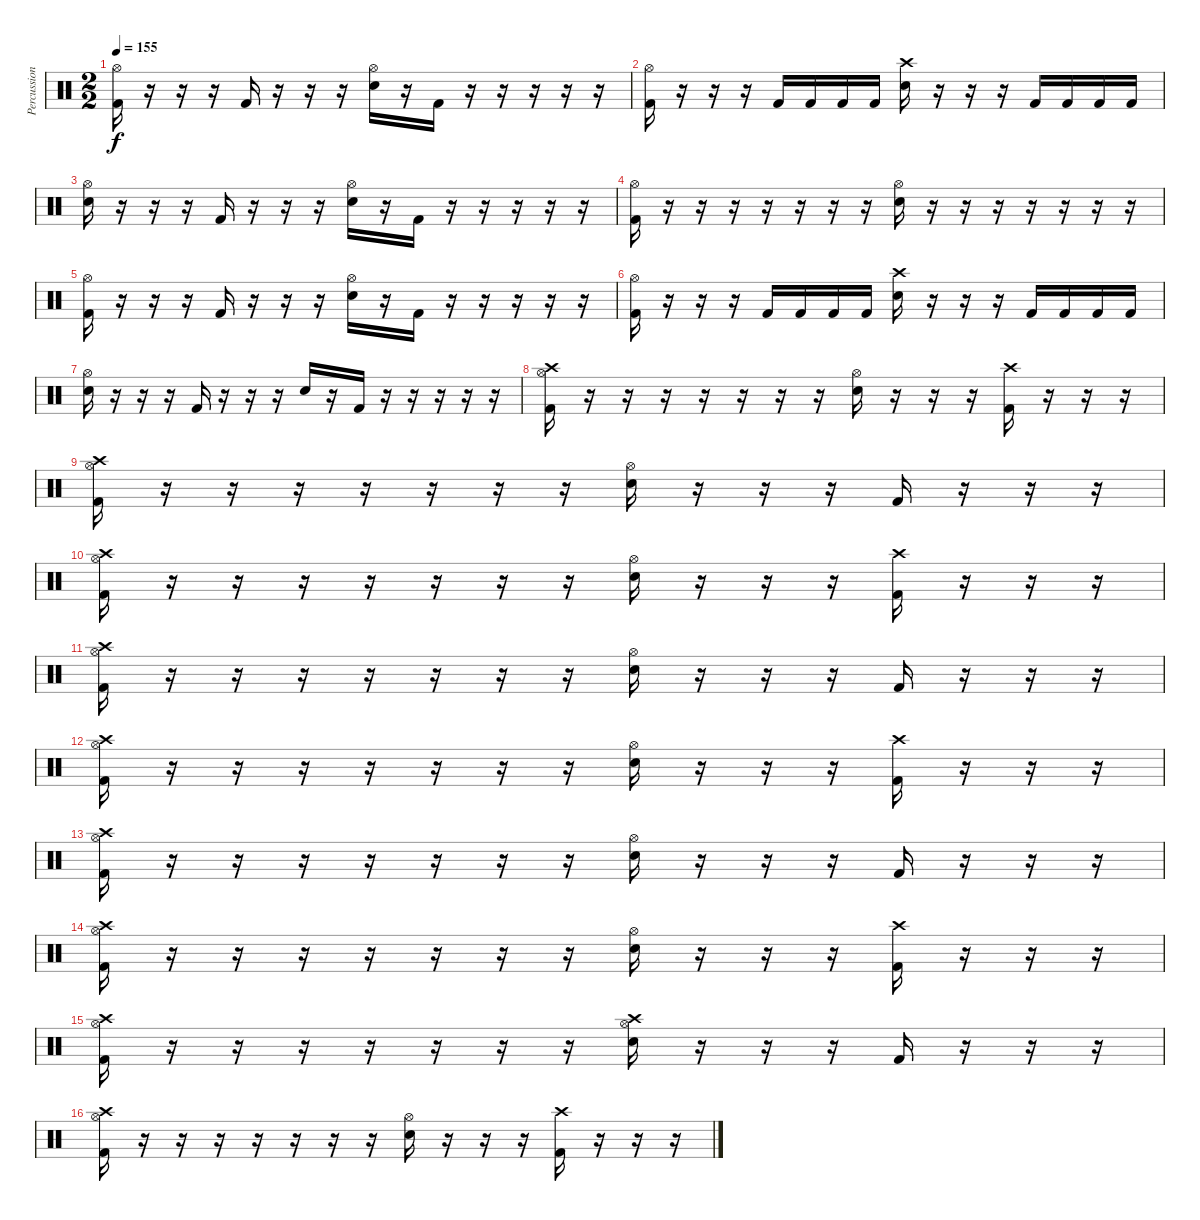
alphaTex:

\track ("Percussion" "Percussion") {instrument percussion}
\staff {score}
\articulation defaults
\ts (2 2)
\tempo 155
\clef neutral
\ks c
("Hi-Hat (open)" "Kick (hit) 2").16{dy f} r.16 r.16 r.16 "Kick (hit) 2".16 r.16 r.16 r.16 ("Hi-Hat (open)" "Snare (hit) 2").16 r.16 "Kick (hit) 2".16 r.16 r.16 r.16 r.16 r.16 |
("Hi-Hat (open)" "Kick (hit) 2").16 r.16 r.16 r.16 "Kick (hit) 2".16 "Kick (hit) 2".16 "Kick (hit) 2".16 "Kick (hit) 2".16 ("Crash high (hit)" "Snare (hit) 2").16 r.16 r.16 r.16 "Kick (hit) 2".16 "Kick (hit) 2".16 "Kick (hit) 2".16 "Kick (hit) 2".16 |
("Hi-Hat (open)" "Snare (hit) 2").16 r.16 r.16 r.16 "Kick (hit) 2".16 r.16 r.16 r.16 ("Hi-Hat (open)" "Snare (hit) 2").16 r.16 "Kick (hit) 2".16 r.16 r.16 r.16 r.16 r.16 |
("Hi-Hat (open)" "Kick (hit) 2").16 r.16 r.16 r.16 r.16 r.16 r.16 r.16 ("Hi-Hat (open)" "Snare (hit) 2").16 r.16 r.16 r.16 r.16 r.16 r.16 r.16 |
("Hi-Hat (open)" "Kick (hit) 2").16 r.16 r.16 r.16 "Kick (hit) 2".16 r.16 r.16 r.16 ("Hi-Hat (open)" "Snare (hit) 2").16 r.16 "Kick (hit) 2".16 r.16 r.16 r.16 r.16 r.16 |
("Hi-Hat (open)" "Kick (hit) 2").16 r.16 r.16 r.16 "Kick (hit) 2".16 "Kick (hit) 2".16 "Kick (hit) 2".16 "Kick (hit) 2".16 ("Crash high (hit)" "Snare (hit) 2").16 r.16 r.16 r.16 "Kick (hit) 2".16 "Kick (hit) 2".16 "Kick (hit) 2".16 "Kick (hit) 2".16 |
("Hi-Hat (open)" "Snare (hit) 2").16 r.16 r.16 r.16 "Kick (hit) 2".16 r.16 r.16 r.16 "Snare (hit) 2".16 r.16 "Kick (hit) 2".16 r.16 r.16 r.16 r.16 r.16 |
("Hi-Hat (open)" "Crash high (hit)" "Kick (hit) 2").16 r.16 r.16 r.16 r.16 r.16 r.16 r.16 ("Hi-Hat (open)" "Snare (hit) 2").16 r.16 r.16 r.16 ("Crash high (hit)" "Kick (hit) 2").16 r.16 r.16 r.16 |
("Hi-Hat (open)" "Crash high (hit)" "Kick (hit) 2").16 r.16 r.16 r.16 r.16 r.16 r.16 r.16 ("Hi-Hat (open)" "Snare (hit) 2").16 r.16 r.16 r.16 "Kick (hit) 2".16 r.16 r.16 r.16 |
("Hi-Hat (open)" "Crash high (hit)" "Kick (hit) 2").16 r.16 r.16 r.16 r.16 r.16 r.16 r.16 ("Hi-Hat (open)" "Snare (hit) 2").16 r.16 r.16 r.16 ("Crash high (hit)" "Kick (hit) 2").16 r.16 r.16 r.16 |
("Hi-Hat (open)" "Crash high (hit)" "Kick (hit) 2").16 r.16 r.16 r.16 r.16 r.16 r.16 r.16 ("Hi-Hat (open)" "Snare (hit) 2").16 r.16 r.16 r.16 "Kick (hit) 2".16 r.16 r.16 r.16 |
("Hi-Hat (open)" "Crash high (hit)" "Kick (hit) 2").16 r.16 r.16 r.16 r.16 r.16 r.16 r.16 ("Hi-Hat (open)" "Snare (hit) 2").16 r.16 r.16 r.16 ("Crash high (hit)" "Kick (hit) 2").16 r.16 r.16 r.16 |
("Hi-Hat (open)" "Crash high (hit)" "Kick (hit) 2").16 r.16 r.16 r.16 r.16 r.16 r.16 r.16 ("Hi-Hat (open)" "Snare (hit) 2").16 r.16 r.16 r.16 "Kick (hit) 2".16 r.16 r.16 r.16 |
("Hi-Hat (open)" "Crash high (hit)" "Kick (hit) 2").16 r.16 r.16 r.16 r.16 r.16 r.16 r.16 ("Hi-Hat (open)" "Snare (hit) 2").16 r.16 r.16 r.16 ("Crash high (hit)" "Kick (hit) 2").16 r.16 r.16 r.16 |
("Hi-Hat (open)" "Crash high (hit)" "Kick (hit) 2").16 r.16 r.16 r.16 r.16 r.16 r.16 r.16 ("Hi-Hat (open)" "Crash high (hit)" "Snare (hit) 2").16 r.16 r.16 r.16 "Kick (hit) 2".16 r.16 r.16 r.16 |
("Hi-Hat (open)" "Crash high (hit)" "Kick (hit) 2").16 r.16 r.16 r.16 r.16 r.16 r.16 r.16 ("Hi-Hat (open)" "Snare (hit) 2").16 r.16 r.16 r.16 ("Crash high (hit)" "Kick (hit) 2").16 r.16 r.16 r.16
